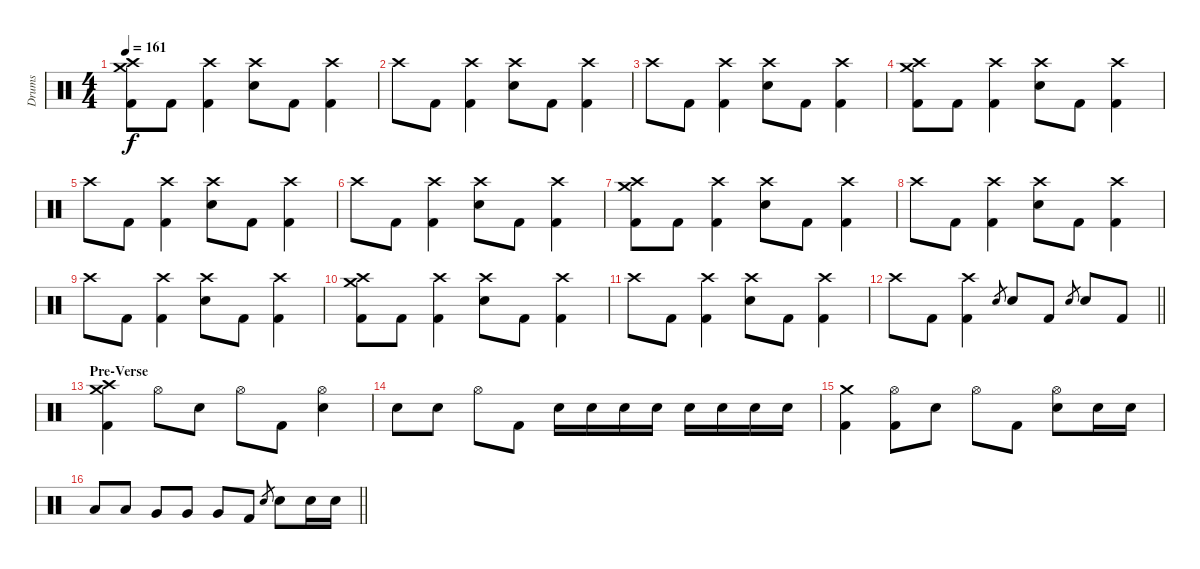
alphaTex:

\track ("Drums" "Drums") {instrument percussion}
\staff {score}
\articulation defaults
\ts (4 4)
\tempo 161
\clef neutral
\ks c
("Crash medium (hit)" "Crash high (hit)" "Kick (hit) 2").8{dy f} "Kick (hit) 2".8 ("Crash high (hit)" "Kick (hit) 2").4 ("Crash high (hit)" "Electric Snare (hit)").8 "Kick (hit) 2".8 ("Crash high (hit)" "Kick (hit) 2").4 |
"Crash high (hit)".8 "Kick (hit) 2".8 ("Crash high (hit)" "Kick (hit) 2").4 ("Crash high (hit)" "Electric Snare (hit)").8 "Kick (hit) 2".8 ("Crash high (hit)" "Kick (hit) 2").4 |
"Crash high (hit)".8 "Kick (hit) 2".8 ("Crash high (hit)" "Kick (hit) 2").4 ("Crash high (hit)" "Electric Snare (hit)").8 "Kick (hit) 2".8 ("Crash high (hit)" "Kick (hit) 2").4 |
("Crash medium (hit)" "Crash high (hit)" "Kick (hit) 2").8 "Kick (hit) 2".8 ("Crash high (hit)" "Kick (hit) 2").4 ("Crash high (hit)" "Electric Snare (hit)").8 "Kick (hit) 2".8 ("Crash high (hit)" "Kick (hit) 2").4 |
"Crash high (hit)".8 "Kick (hit) 2".8 ("Crash high (hit)" "Kick (hit) 2").4 ("Crash high (hit)" "Electric Snare (hit)").8 "Kick (hit) 2".8 ("Crash high (hit)" "Kick (hit) 2").4 |
"Crash high (hit)".8 "Kick (hit) 2".8 ("Crash high (hit)" "Kick (hit) 2").4 ("Crash high (hit)" "Electric Snare (hit)").8 "Kick (hit) 2".8 ("Crash high (hit)" "Kick (hit) 2").4 |
("Crash medium (hit)" "Crash high (hit)" "Kick (hit) 2").8 "Kick (hit) 2".8 ("Crash high (hit)" "Kick (hit) 2").4 ("Crash high (hit)" "Electric Snare (hit)").8 "Kick (hit) 2".8 ("Crash high (hit)" "Kick (hit) 2").4 |
"Crash high (hit)".8 "Kick (hit) 2".8 ("Crash high (hit)" "Kick (hit) 2").4 ("Crash high (hit)" "Electric Snare (hit)").8 "Kick (hit) 2".8 ("Crash high (hit)" "Kick (hit) 2").4 |
"Crash high (hit)".8 "Kick (hit) 2".8 ("Crash high (hit)" "Kick (hit) 2").4 ("Crash high (hit)" "Electric Snare (hit)").8 "Kick (hit) 2".8 ("Crash high (hit)" "Kick (hit) 2").4 |
("Crash medium (hit)" "Crash high (hit)" "Kick (hit) 2").8 "Kick (hit) 2".8 ("Crash high (hit)" "Kick (hit) 2").4 ("Crash high (hit)" "Electric Snare (hit)").8 "Kick (hit) 2".8 ("Crash high (hit)" "Kick (hit) 2").4 |
"Crash high (hit)".8 "Kick (hit) 2".8 ("Crash high (hit)" "Kick (hit) 2").4 ("Crash high (hit)" "Electric Snare (hit)").8 "Kick (hit) 2".8 ("Crash high (hit)" "Kick (hit) 2").4 |
\barLineRight lightlight "Crash high (hit)".8 "Kick (hit) 2".8
("Crash high (hit)" "Kick (hit) 2").4 "Electric Snare (hit)".8{gr} "Electric Snare (hit)".8 "Kick (hit) 2".8 "Electric Snare (hit)".8{gr} "Electric Snare (hit)".8 "Kick (hit) 2".8 |
\section ("" "Pre-Verse")
("Crash medium (hit)" "Crash high (hit)" "Kick (hit) 2").4 "Hi-Hat (open)".8 "Electric Snare (hit)".8 "Hi-Hat (open)".8 "Kick (hit) 2".8 ("Hi-Hat (open)" "Electric Snare (hit)").4 |
"Electric Snare (hit)".8 "Electric Snare (hit)".8 "Hi-Hat (open)".8 "Kick (hit) 2".8 "Electric Snare (hit)".16 "Electric Snare (hit)".16 "Electric Snare (hit)".16 "Electric Snare (hit)".16 "Electric Snare (hit)".16 "Electric Snare (hit)".16 "Electric Snare (hit)".16 "Electric Snare (hit)".16 |
("Crash medium (hit)" "Kick (hit) 2").4 ("Hi-Hat (open)" "Kick (hit) 2").8 "Electric Snare (hit)".8 "Hi-Hat (open)".8 "Kick (hit) 2".8 ("Hi-Hat (open)" "Electric Snare (hit)").8 "Electric Snare (hit)".16 "Electric Snare (hit)".16 |
\barLineRight lightlight "Low Tom (hit)".8 "Low Tom (hit)".8 "Very Low Tom (hit)".8 "Very Low Tom (hit)".8 "Very Low Tom (hit)".8 "Kick (hit) 2".8 "Electric Snare (hit)".8{gr} "Electric Snare (hit)".8 "Electric Snare (hit)".16 "Electric Snare (hit)".16
